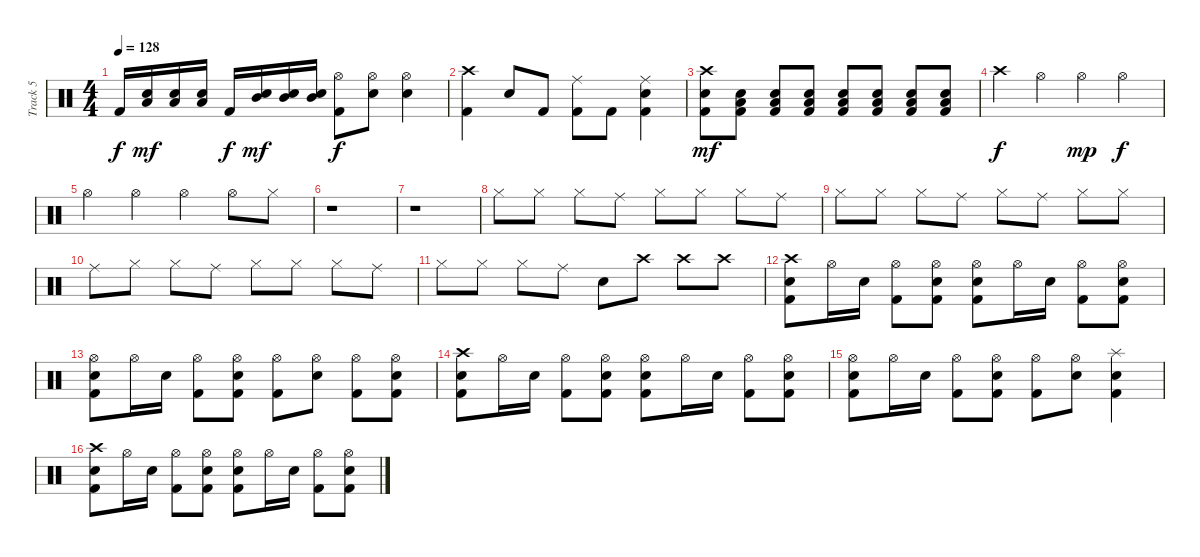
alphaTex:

\track ("Track 5" "Track 5") {instrument percussion}
\staff {score}
\articulation defaults
\ts (4 4)
\tempo 128
\clef neutral
\ks c "Kick (hit) 2".16{dy f}
("Electric Snare (hit)" "Low Tom (hit)").16{dy mf} ("Electric Snare (hit)" "Low Tom (hit)").16 ("Electric Snare (hit)" "Low Tom (hit)").16 "Kick (hit) 2".16{dy f} ("Electric Snare (hit)" "Mid Tom (hit)").16{dy mf} ("Electric Snare (hit)" "Mid Tom (hit)").16 ("Electric Snare (hit)" "Mid Tom (hit)").16 ("Hi-Hat (open)" "Kick (hit) 2").8{dy f} ("Hi-Hat (open)" "Electric Snare (hit)").8 ("Hi-Hat (open)" "Electric Snare (hit)").4 |
("Crash high (hit)" "Kick (hit) 2").4 "Electric Snare (hit)".8 "Kick (hit) 2".8 ("Ride (middle)" "Kick (hit) 2").8 "Kick (hit) 2".8 ("Ride (middle)" "Electric Snare (hit)" "Kick (hit) 2").4 |
("Crash high (hit)" "Electric Snare (hit)" "Kick (hit) 2").8{dy mf} ("Electric Snare (hit)" "Low Tom (hit)" "Kick (hit) 2").8 ("Electric Snare (hit)" "Low Tom (hit)" "Kick (hit) 2").8 ("Electric Snare (hit)" "Low Tom (hit)" "Kick (hit) 2").8 ("Electric Snare (hit)" "Low Tom (hit)" "Kick (hit) 2").8 ("Electric Snare (hit)" "Low Tom (hit)" "Kick (hit) 2").8 ("Electric Snare (hit)" "Low Tom (hit)" "Kick (hit) 2").8 ("Electric Snare (hit)" "Low Tom (hit)" "Kick (hit) 2").8 |
"Crash high (hit)".4{dy f} "Hi-Hat (open)".4 "Hi-Hat (open)".4{dy mp} "Hi-Hat (open)".4{dy f} |
"Hi-Hat (open)".4 "Hi-Hat (open)".4 "Hi-Hat (open)".4 "Hi-Hat (open)".8 "Hi-Hat (closed)".8 |
r.1 |
r.1 |
"Hi-Hat (closed)".8 "Hi-Hat (closed)".8 "Hi-Hat (closed)".8 "Ride (middle)".8 "Hi-Hat (closed)".8 "Hi-Hat (closed)".8 "Hi-Hat (closed)".8 "Ride (middle)".8 |
"Hi-Hat (closed)".8 "Hi-Hat (closed)".8 "Hi-Hat (closed)".8 "Ride (middle)".8 "Hi-Hat (closed)".8 "Ride (middle)".8 "Hi-Hat (closed)".8 "Hi-Hat (closed)".8 |
"Ride (middle)".8 "Hi-Hat (closed)".8 "Hi-Hat (closed)".8 "Ride (middle)".8 "Hi-Hat (closed)".8 "Hi-Hat (closed)".8 "Hi-Hat (closed)".8 "Ride (middle)".8 |
"Hi-Hat (closed)".8 "Hi-Hat (closed)".8 "Hi-Hat (closed)".8 "Ride (middle)".8 "Electric Snare (hit)".8 "Crash high (hit)".8 "Crash high (hit)".8 "Crash high (hit)".8 |
("Crash high (hit)" "Electric Snare (hit)" "Kick (hit) 2").8 "Hi-Hat (open)".16 "Electric Snare (hit)".16 ("Hi-Hat (open)" "Kick (hit) 2").8 ("Hi-Hat (open)" "Electric Snare (hit)" "Kick (hit) 2").8 ("Hi-Hat (open)" "Electric Snare (hit)" "Kick (hit) 2").8 "Hi-Hat (open)".16 "Electric Snare (hit)".16 ("Hi-Hat (open)" "Kick (hit) 2").8 ("Hi-Hat (open)" "Electric Snare (hit)" "Kick (hit) 2").8 |
("Hi-Hat (open)" "Electric Snare (hit)" "Kick (hit) 2").8 "Hi-Hat (open)".16 "Electric Snare (hit)".16 ("Hi-Hat (open)" "Kick (hit) 2").8 ("Hi-Hat (open)" "Electric Snare (hit)" "Kick (hit) 2").8 ("Hi-Hat (open)" "Kick (hit) 2").8 ("Hi-Hat (open)" "Electric Snare (hit)").8 ("Hi-Hat (open)" "Kick (hit) 2").8 ("Hi-Hat (open)" "Electric Snare (hit)" "Kick (hit) 2").8 |
("Crash high (hit)" "Electric Snare (hit)" "Kick (hit) 2").8 "Hi-Hat (open)".16 "Electric Snare (hit)".16 ("Hi-Hat (open)" "Kick (hit) 2").8 ("Hi-Hat (open)" "Electric Snare (hit)" "Kick (hit) 2").8 ("Hi-Hat (open)" "Electric Snare (hit)" "Kick (hit) 2").8 "Hi-Hat (open)".16 "Electric Snare (hit)".16 ("Hi-Hat (open)" "Kick (hit) 2").8 ("Hi-Hat (open)" "Electric Snare (hit)" "Kick (hit) 2").8 |
("Hi-Hat (open)" "Electric Snare (hit)" "Kick (hit) 2").8 "Hi-Hat (open)".16 "Electric Snare (hit)".16 ("Hi-Hat (open)" "Kick (hit) 2").8 ("Hi-Hat (open)" "Electric Snare (hit)" "Kick (hit) 2").8 ("Hi-Hat (open)" "Kick (hit) 2").8 ("Hi-Hat (open)" "Electric Snare (hit)").8 ("Splash (hit)" "Electric Snare (hit)" "Kick (hit) 2").4 |
("Crash high (hit)" "Electric Snare (hit)" "Kick (hit) 2").8 "Hi-Hat (open)".16 "Electric Snare (hit)".16 ("Hi-Hat (open)" "Kick (hit) 2").8 ("Hi-Hat (open)" "Electric Snare (hit)" "Kick (hit) 2").8 ("Hi-Hat (open)" "Electric Snare (hit)" "Kick (hit) 2").8 "Hi-Hat (open)".16 "Electric Snare (hit)".16 ("Hi-Hat (open)" "Kick (hit) 2").8 ("Hi-Hat (open)" "Electric Snare (hit)" "Kick (hit) 2").8
